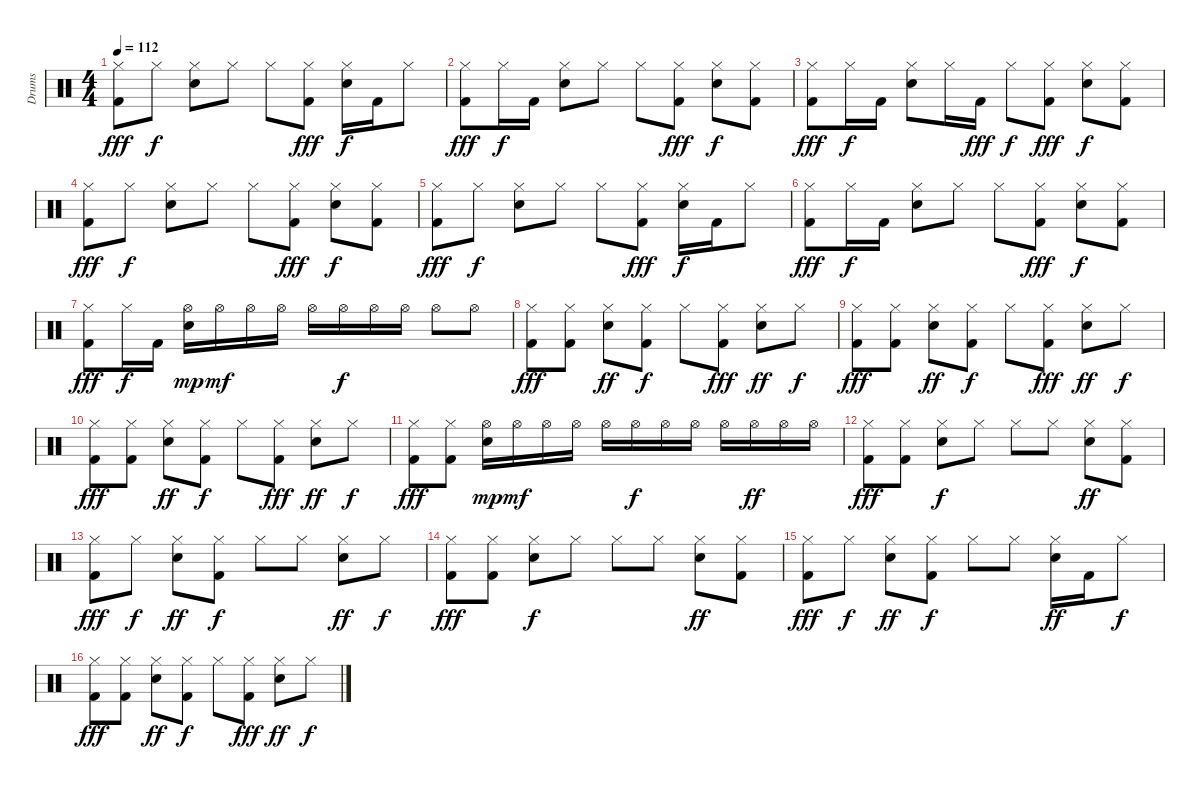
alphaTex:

\track ("Drums" "Drums") {instrument percussion}
\staff {score}
\articulation defaults
\ts (4 4)
\tempo 112
\clef neutral
\ks c
("Hi-Hat (closed)" "Kick (hit) 2").8{dy fff} "Hi-Hat (closed)".8{dy f} ("Hi-Hat (closed)" "Snare (hit) 2").8 "Hi-Hat (closed)".8 "Hi-Hat (closed)".8 ("Hi-Hat (closed)" "Kick (hit) 2").8{dy fff} ("Hi-Hat (closed)" "Snare (hit) 2").16{dy f} "Kick (hit) 2".16 "Hi-Hat (closed)".8 |
("Hi-Hat (closed)" "Kick (hit) 2").8{dy fff} "Hi-Hat (closed)".16{dy f} "Kick (hit) 2".16 ("Hi-Hat (closed)" "Snare (hit) 2").8 "Hi-Hat (closed)".8 "Hi-Hat (closed)".8 ("Hi-Hat (closed)" "Kick (hit) 2").8{dy fff} ("Hi-Hat (closed)" "Snare (hit) 2").8{dy f} ("Kick (hit) 2" "Hi-Hat (closed)").8 |
("Hi-Hat (closed)" "Kick (hit) 2").8{dy fff} "Hi-Hat (closed)".16{dy f} "Kick (hit) 2".16 ("Hi-Hat (closed)" "Snare (hit) 2").8 "Hi-Hat (closed)".16 "Kick (hit) 2".16{dy fff} "Hi-Hat (closed)".8{dy f} ("Kick (hit) 2" "Hi-Hat (closed)").8{dy fff} ("Hi-Hat (closed)" "Snare (hit) 2").8{dy f} ("Kick (hit) 2" "Hi-Hat (closed)").8 |
("Hi-Hat (closed)" "Kick (hit) 2").8{dy fff} "Hi-Hat (closed)".8{dy f} ("Hi-Hat (closed)" "Snare (hit) 2").8 "Hi-Hat (closed)".8 "Hi-Hat (closed)".8 ("Hi-Hat (closed)" "Kick (hit) 2").8{dy fff} ("Hi-Hat (closed)" "Snare (hit) 2").8{dy f} ("Hi-Hat (closed)" "Kick (hit) 2").8 |
("Hi-Hat (closed)" "Kick (hit) 2").8{dy fff} "Hi-Hat (closed)".8{dy f} ("Hi-Hat (closed)" "Snare (hit) 2").8 "Hi-Hat (closed)".8 "Hi-Hat (closed)".8 ("Hi-Hat (closed)" "Kick (hit) 2").8{dy fff} ("Hi-Hat (closed)" "Snare (hit) 2").16{dy f} "Kick (hit) 2".16 "Hi-Hat (closed)".8 |
("Hi-Hat (closed)" "Kick (hit) 2").8{dy fff} "Hi-Hat (closed)".16{dy f} "Kick (hit) 2".16 ("Hi-Hat (closed)" "Snare (hit) 2").8 "Hi-Hat (closed)".8 "Hi-Hat (closed)".8 ("Hi-Hat (closed)" "Kick (hit) 2").8{dy fff} ("Hi-Hat (closed)" "Snare (hit) 2").8{dy f} ("Kick (hit) 2" "Hi-Hat (closed)").8 |
("Hi-Hat (closed)" "Kick (hit) 2").8{dy fff} "Hi-Hat (closed)".16{dy f} "Kick (hit) 2".16 ("Hi-Hat (open)" "Snare (hit) 2").16{dy mp} "Hi-Hat (open)".16{dy mf} "Hi-Hat (open)".16 "Hi-Hat (open)".16 "Hi-Hat (open)".16 "Hi-Hat (open)".16{dy f} "Hi-Hat (open)".16 "Hi-Hat (open)".16 "Hi-Hat (open)".8 "Hi-Hat (open)".8 |
("Hi-Hat (closed)" "Kick (hit) 2").8{dy fff} ("Hi-Hat (closed)" "Kick (hit) 2").8 ("Hi-Hat (closed)" "Snare (hit) 2").8{dy ff} ("Hi-Hat (closed)" "Kick (hit) 2").8{dy f} "Hi-Hat (closed)".8 ("Hi-Hat (closed)" "Kick (hit) 2").8{dy fff} ("Hi-Hat (closed)" "Snare (hit) 2").8{dy ff} "Hi-Hat (closed)".8{dy f} |
("Hi-Hat (closed)" "Kick (hit) 2").8{dy fff} ("Hi-Hat (closed)" "Kick (hit) 2").8 ("Hi-Hat (closed)" "Snare (hit) 2").8{dy ff} ("Hi-Hat (closed)" "Kick (hit) 2").8{dy f} "Hi-Hat (closed)".8 ("Hi-Hat (closed)" "Kick (hit) 2").8{dy fff} ("Hi-Hat (closed)" "Snare (hit) 2").8{dy ff} "Hi-Hat (closed)".8{dy f} |
("Hi-Hat (closed)" "Kick (hit) 2").8{dy fff} ("Hi-Hat (closed)" "Kick (hit) 2").8 ("Hi-Hat (closed)" "Snare (hit) 2").8{dy ff} ("Hi-Hat (closed)" "Kick (hit) 2").8{dy f} "Hi-Hat (closed)".8 ("Hi-Hat (closed)" "Kick (hit) 2").8{dy fff} ("Hi-Hat (closed)" "Snare (hit) 2").8{dy ff} "Hi-Hat (closed)".8{dy f} |
("Hi-Hat (closed)" "Kick (hit) 2").8{dy fff} ("Hi-Hat (closed)" "Kick (hit) 2").8 ("Snare (hit) 2" "Hi-Hat (open)").16{dy mp} "Hi-Hat (open)".16{dy mf} "Hi-Hat (open)".16 "Hi-Hat (open)".16 "Hi-Hat (open)".16 "Hi-Hat (open)".16{dy f} "Hi-Hat (open)".16 "Hi-Hat (open)".16 "Hi-Hat (open)".16 "Hi-Hat (open)".16{dy ff} "Hi-Hat (open)".16 "Hi-Hat (open)".16 |
("Hi-Hat (closed)" "Kick (hit) 2").8{dy fff} ("Hi-Hat (closed)" "Kick (hit) 2").8 ("Hi-Hat (closed)" "Snare (hit) 2").8{dy f} "Hi-Hat (closed)".8 "Hi-Hat (closed)".8 "Hi-Hat (closed)".8 ("Snare (hit) 2" "Hi-Hat (closed)").8{dy ff} ("Kick (hit) 2" "Hi-Hat (closed)").8 |
("Hi-Hat (closed)" "Kick (hit) 2").8{dy fff} "Hi-Hat (closed)".8{dy f} ("Hi-Hat (closed)" "Snare (hit) 2").8{dy ff} ("Kick (hit) 2" "Hi-Hat (closed)").8{dy f} "Hi-Hat (closed)".8 "Hi-Hat (closed)".8 ("Snare (hit) 2" "Hi-Hat (closed)").8{dy ff} "Hi-Hat (closed)".8{dy f} |
("Hi-Hat (closed)" "Kick (hit) 2").8{dy fff} ("Hi-Hat (closed)" "Kick (hit) 2").8 ("Hi-Hat (closed)" "Snare (hit) 2").8{dy f} "Hi-Hat (closed)".8 "Hi-Hat (closed)".8 "Hi-Hat (closed)".8 ("Snare (hit) 2" "Hi-Hat (closed)").8{dy ff} ("Kick (hit) 2" "Hi-Hat (closed)").8 |
("Hi-Hat (closed)" "Kick (hit) 2").8{dy fff} "Hi-Hat (closed)".8{dy f} ("Hi-Hat (closed)" "Snare (hit) 2").8{dy ff} ("Kick (hit) 2" "Hi-Hat (closed)").8{dy f} "Hi-Hat (closed)".8 "Hi-Hat (closed)".8 ("Snare (hit) 2" "Hi-Hat (closed)").16{dy ff} "Kick (hit) 2".16 "Hi-Hat (closed)".8{dy f} |
("Hi-Hat (closed)" "Kick (hit) 2").8{dy fff} ("Hi-Hat (closed)" "Kick (hit) 2").8 ("Hi-Hat (closed)" "Snare (hit) 2").8{dy ff} ("Hi-Hat (closed)" "Kick (hit) 2").8{dy f} "Hi-Hat (closed)".8 ("Hi-Hat (closed)" "Kick (hit) 2").8{dy fff} ("Hi-Hat (closed)" "Snare (hit) 2").8{dy ff} "Hi-Hat (closed)".8{dy f}
